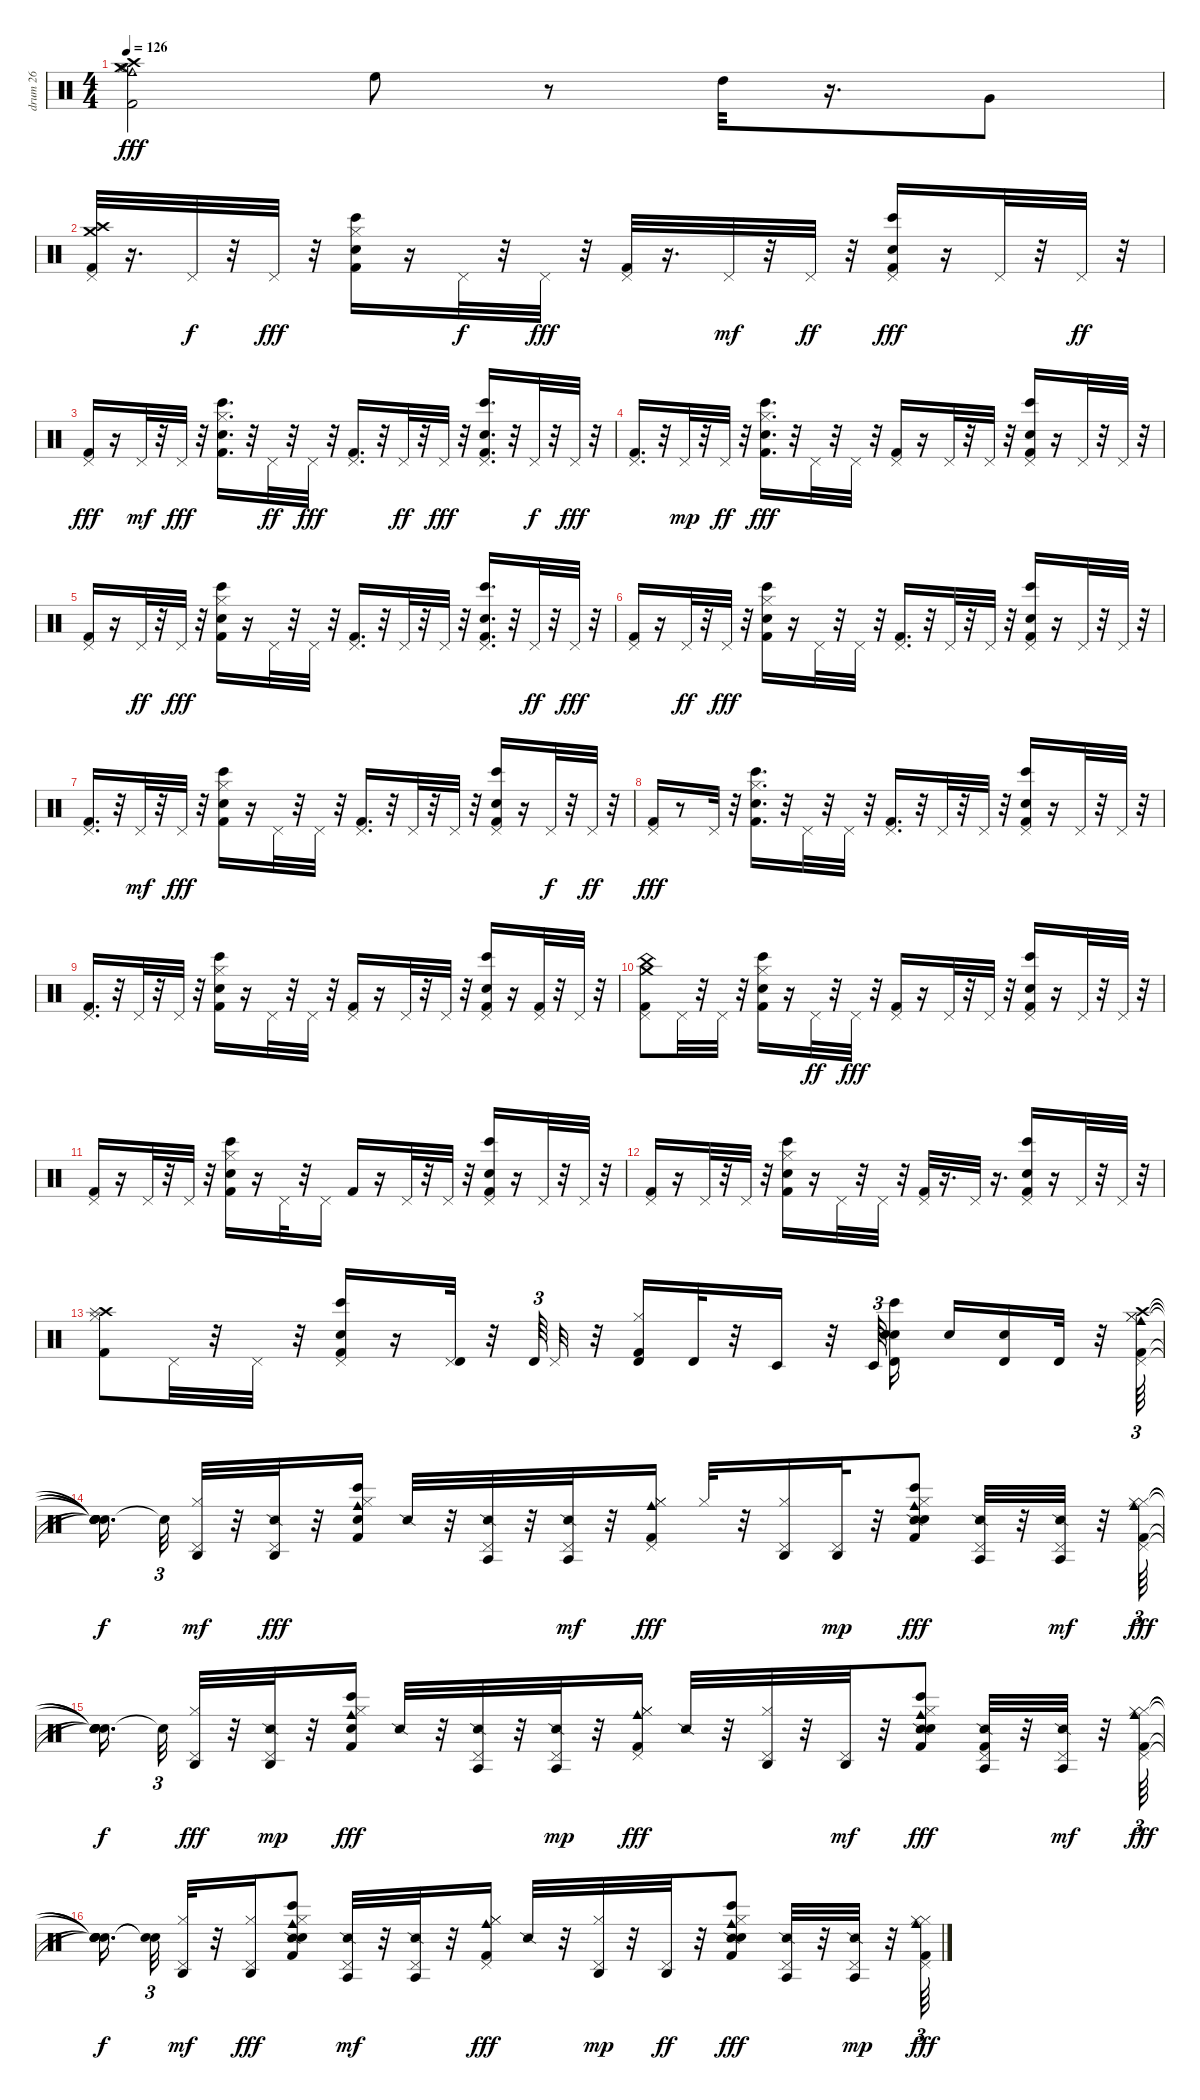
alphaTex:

\track ("drum 26" "drum 26") {instrument percussion}
\staff {score}
\articulation defaults
\ts (4 4)
\tempo 126
\clef neutral
\ks c
("Hi-Hat (closed)" "Kick (hit) 2" "Hi-Hat (open)" "Crash high (hit)" "Cowbell medium (hit)" "Crash medium (hit)").2{dy fff} "High Floor Tom (hit)".8 r.8 "High Tom (hit)".32 r.16{d} "Very Low Tom (hit)".8 |
("Kick (hit) 2" "Pedal Hi-Hat (hit)" "Crash high (hit)" "Crash medium (hit)").32 r.16{d} "Pedal Hi-Hat (hit)".32{dy f} r.32 "Pedal Hi-Hat (hit)".32{dy fff} r.32 ("Bongo High (hit)" "Kick (hit) 2" "Hand Clap (hit)" "Hi-Hat (closed)").16 r.16 "Pedal Hi-Hat (hit)".32{dy f} r.32 "Pedal Hi-Hat (hit)".32{dy fff} r.32 ("Kick (hit) 2" "Pedal Hi-Hat (hit)").32 r.16{d} "Pedal Hi-Hat (hit)".32{dy mf} r.32 "Pedal Hi-Hat (hit)".32{dy ff} r.32 ("Bongo High (hit)" "Kick (hit) 2" "Hand Clap (hit)" "Pedal Hi-Hat (hit)").16{dy fff} r.16 "Pedal Hi-Hat (hit)".32 r.32 "Pedal Hi-Hat (hit)".32{dy ff} r.32 |
("Kick (hit) 2" "Pedal Hi-Hat (hit)").16{dy fff} r.16 "Pedal Hi-Hat (hit)".32{dy mf} r.32 "Pedal Hi-Hat (hit)".32{dy fff} r.32 ("Bongo High (hit)" "Kick (hit) 2" "Hand Clap (hit)" "Hi-Hat (closed)").16{d} r.32 "Pedal Hi-Hat (hit)".32{dy ff} r.32 "Pedal Hi-Hat (hit)".32{dy fff} r.32 ("Kick (hit) 2" "Pedal Hi-Hat (hit)").16{d} r.32 "Pedal Hi-Hat (hit)".32{dy ff} r.32 "Pedal Hi-Hat (hit)".32{dy fff} r.32 ("Bongo High (hit)" "Kick (hit) 2" "Hand Clap (hit)" "Pedal Hi-Hat (hit)").16{d} r.32 "Pedal Hi-Hat (hit)".32{dy f} r.32 "Pedal Hi-Hat (hit)".32{dy fff} r.32 |
("Kick (hit) 2" "Pedal Hi-Hat (hit)").16{d} r.32 "Pedal Hi-Hat (hit)".32{dy mp} r.32 "Pedal Hi-Hat (hit)".32{dy ff} r.32 ("Bongo High (hit)" "Kick (hit) 2" "Hand Clap (hit)" "Hi-Hat (closed)").16{d dy fff} r.32 "Pedal Hi-Hat (hit)".32 r.32 "Pedal Hi-Hat (hit)".32 r.32 ("Kick (hit) 2" "Pedal Hi-Hat (hit)").16 r.16 "Pedal Hi-Hat (hit)".32 r.32 "Pedal Hi-Hat (hit)".32 r.32 ("Bongo High (hit)" "Kick (hit) 2" "Hand Clap (hit)" "Pedal Hi-Hat (hit)").16 r.16 "Pedal Hi-Hat (hit)".32 r.32 "Pedal Hi-Hat (hit)".32 r.32 |
("Kick (hit) 2" "Pedal Hi-Hat (hit)").16 r.16 "Pedal Hi-Hat (hit)".32{dy ff} r.32 "Pedal Hi-Hat (hit)".32{dy fff} r.32 ("Bongo High (hit)" "Kick (hit) 2" "Hand Clap (hit)" "Hi-Hat (closed)").16 r.16 "Pedal Hi-Hat (hit)".32 r.32 "Pedal Hi-Hat (hit)".32 r.32 ("Kick (hit) 2" "Pedal Hi-Hat (hit)").16{d} r.32 "Pedal Hi-Hat (hit)".32 r.32 "Pedal Hi-Hat (hit)".32 r.32 ("Bongo High (hit)" "Kick (hit) 2" "Hand Clap (hit)" "Pedal Hi-Hat (hit)").16{d} r.32 "Pedal Hi-Hat (hit)".32{dy ff} r.32 "Pedal Hi-Hat (hit)".32{dy fff} r.32 |
("Kick (hit) 2" "Pedal Hi-Hat (hit)").16 r.16 "Pedal Hi-Hat (hit)".32{dy ff} r.32 "Pedal Hi-Hat (hit)".32{dy fff} r.32 ("Bongo High (hit)" "Kick (hit) 2" "Hand Clap (hit)" "Hi-Hat (closed)").16 r.16 "Pedal Hi-Hat (hit)".32 r.32 "Pedal Hi-Hat (hit)".32 r.32 ("Kick (hit) 2" "Pedal Hi-Hat (hit)").16{d} r.32 "Pedal Hi-Hat (hit)".32 r.32 "Pedal Hi-Hat (hit)".32 r.32 ("Bongo High (hit)" "Kick (hit) 2" "Hand Clap (hit)" "Pedal Hi-Hat (hit)").16 r.16 "Pedal Hi-Hat (hit)".32 r.32 "Pedal Hi-Hat (hit)".32 r.32 |
("Kick (hit) 2" "Pedal Hi-Hat (hit)").16{d} r.32 "Pedal Hi-Hat (hit)".32{dy mf} r.32 "Pedal Hi-Hat (hit)".32{dy fff} r.32 ("Bongo High (hit)" "Kick (hit) 2" "Hand Clap (hit)" "Hi-Hat (closed)").16 r.16 "Pedal Hi-Hat (hit)".32 r.32 "Pedal Hi-Hat (hit)".32 r.32 ("Kick (hit) 2" "Pedal Hi-Hat (hit)").16{d} r.32 "Pedal Hi-Hat (hit)".32 r.32 "Pedal Hi-Hat (hit)".32 r.32 ("Bongo High (hit)" "Kick (hit) 2" "Hand Clap (hit)" "Pedal Hi-Hat (hit)").16 r.16 "Pedal Hi-Hat (hit)".32{dy f} r.32 "Pedal Hi-Hat (hit)".32{dy ff} r.32 |
("Kick (hit) 2" "Pedal Hi-Hat (hit)").16{dy fff} r.8 "Pedal Hi-Hat (hit)".32 r.32 ("Bongo High (hit)" "Kick (hit) 2" "Hand Clap (hit)" "Hi-Hat (closed)").16{d} r.32 "Pedal Hi-Hat (hit)".32 r.32 "Pedal Hi-Hat (hit)".32 r.32 ("Kick (hit) 2" "Pedal Hi-Hat (hit)").16{d} r.32 "Pedal Hi-Hat (hit)".32 r.32 "Pedal Hi-Hat (hit)".32 r.32 ("Bongo High (hit)" "Kick (hit) 2" "Hand Clap (hit)" "Pedal Hi-Hat (hit)").16 r.16 "Pedal Hi-Hat (hit)".32 r.32 "Pedal Hi-Hat (hit)".32 r.32 |
("Kick (hit) 2" "Pedal Hi-Hat (hit)").16{d} r.32 "Pedal Hi-Hat (hit)".32 r.32 "Pedal Hi-Hat (hit)".32 r.32 ("Bongo High (hit)" "Kick (hit) 2" "Hand Clap (hit)" "Hi-Hat (closed)").16 r.16 "Pedal Hi-Hat (hit)".32 r.32 "Pedal Hi-Hat (hit)".32 r.32 ("Kick (hit) 2" "Pedal Hi-Hat (hit)").16 r.16 "Pedal Hi-Hat (hit)".32 r.32 "Pedal Hi-Hat (hit)".32 r.32 ("Bongo High (hit)" "Kick (hit) 2" "Hand Clap (hit)" "Pedal Hi-Hat (hit)").16 r.16 ("Kick (hit) 2" "Pedal Hi-Hat (hit)").32 r.32 "Pedal Hi-Hat (hit)".32 r.32 |
("Kick (hit) 2" "Pedal Hi-Hat (hit)" "China (hit)" "Crash medium (hit)").8 "Pedal Hi-Hat (hit)".32 r.32 "Pedal Hi-Hat (hit)".32 r.32 ("Bongo High (hit)" "Kick (hit) 2" "Hand Clap (hit)" "Hi-Hat (closed)").16 r.16 "Pedal Hi-Hat (hit)".32{dy ff} r.32 "Pedal Hi-Hat (hit)".32{dy fff} r.32 ("Kick (hit) 2" "Pedal Hi-Hat (hit)").16 r.16 "Pedal Hi-Hat (hit)".32 r.32 "Pedal Hi-Hat (hit)".32 r.32 ("Bongo High (hit)" "Kick (hit) 2" "Hand Clap (hit)" "Pedal Hi-Hat (hit)").16 r.16 "Pedal Hi-Hat (hit)".32 r.32 "Pedal Hi-Hat (hit)".32 r.32 |
("Kick (hit) 2" "Pedal Hi-Hat (hit)").16 r.16 "Pedal Hi-Hat (hit)".32 r.32 "Pedal Hi-Hat (hit)".32 r.32 ("Bongo High (hit)" "Kick (hit) 2" "Hand Clap (hit)" "Hi-Hat (closed)").16 r.16 "Pedal Hi-Hat (hit)".32 r.32 "Pedal Hi-Hat (hit)".16 "Kick (hit) 2".16 r.16 "Pedal Hi-Hat (hit)".32 r.32 "Pedal Hi-Hat (hit)".32 r.32 ("Bongo High (hit)" "Kick (hit) 2" "Hand Clap (hit)" "Pedal Hi-Hat (hit)").16 r.16 "Pedal Hi-Hat (hit)".32 r.32 "Pedal Hi-Hat (hit)".32 r.32 |
("Kick (hit) 2" "Pedal Hi-Hat (hit)").16 r.16 "Pedal Hi-Hat (hit)".32 r.32 "Pedal Hi-Hat (hit)".32 r.32 ("Bongo High (hit)" "Kick (hit) 2" "Hand Clap (hit)" "Hi-Hat (closed)").16 r.16 "Pedal Hi-Hat (hit)".32 r.32 "Pedal Hi-Hat (hit)".32 r.32 ("Kick (hit) 2" "Pedal Hi-Hat (hit)").32 r.16{d} "Pedal Hi-Hat (hit)".32 r.16{d} ("Bongo High (hit)" "Kick (hit) 2" "Hand Clap (hit)" "Pedal Hi-Hat (hit)").16 r.16 "Pedal Hi-Hat (hit)".32 r.32 "Pedal Hi-Hat (hit)".32 r.32 |
("Kick (hit) 2" "Hi-Hat (closed)" "Crash high (hit)" "Splash (hit)").8 "Pedal Hi-Hat (hit)".32 r.32 "Pedal Hi-Hat (hit)".32 r.32 ("Bongo High (hit)" "Kick (hit) 2" "Hand Clap (hit)" "Pedal Hi-Hat (hit)").16 r.16 ("Pedal Hi-Hat (hit)" "Timbale high (hit)").32 r.32 "Timbale high (hit)".64{tu (3 2)} "Pedal Hi-Hat (hit)".32 r.32 ("Kick (hit) 2" "Hi-Hat (closed)" "Timbale high (hit)").16 "Timbale high (hit)".32 r.32 "Timbale low (hit)".16 r.32 "Timbale low (hit)".64{tu (3 2)} ("Bongo High (hit)" "Hand Clap (hit)" "Electric Snare (hit)" "Timbale high (hit)").16 "Electric Snare (hit)".16 ("Electric Snare (hit)" "Timbale high (hit)").16 "Timbale high (hit)".32 r.32 ("Hi-Hat (closed)" "Kick (hit) 2" "Hi-Hat (closed)" "Pedal Hi-Hat (hit)" "Crash high (hit)" "Cowbell medium (hit)").64{tu (3 2)} |
("Snare (hit)"{t} "Snare (hit)"{t} "Snare (hit)"{t} "Snare (hit)"{t} "Snare (hit)"{t} "Snare (hit)"{t}).16{d dy f beam splitsecondary} "Snare (hit)"{t}.32{tu (3 2)} ("Hi-Hat (closed)" "Pedal Hi-Hat (hit)" "Agogo high (hit)").32{dy mf} r.32 ("Snare (side stick) 2" "Pedal Hi-Hat (hit)" "Agogo high (hit)").32{dy fff} r.32 ("Bongo High (hit)" "Kick (hit) 2" "Hand Clap (hit)" "Hi-Hat (closed)" "Cowbell medium (hit)").16 "Snare (side stick) 2".32 r.32 ("Snare (side stick) 2" "Pedal Hi-Hat (hit)" "Agogo tow (hit)").32 r.32 ("Snare (side stick) 2" "Pedal Hi-Hat (hit)" "Agogo tow (hit)").32{dy mf} r.32 ("Hi-Hat (closed)" "Kick (hit) 2" "Hi-Hat (closed)" "Pedal Hi-Hat (hit)" "Cowbell medium (hit)").16{dy fff} "Hi-Hat (closed)".32 r.32 ("Hi-Hat (closed)" "Pedal Hi-Hat (hit)" "Agogo high (hit)").16 ("Pedal Hi-Hat (hit)" "Agogo high (hit)").32{dy mp} r.32 ("Bongo High (hit)" "Snare (side stick) 2" "Kick (hit) 2" "Hand Clap (hit)" "Hi-Hat (closed)" "Cowbell medium (hit)").8{dy fff} ("Snare (side stick) 2" "Pedal Hi-Hat (hit)" "Agogo tow (hit)").32 r.32 ("Snare (side stick) 2" "Pedal Hi-Hat (hit)" "Agogo tow (hit)").32{dy mf} r.32 ("Hi-Hat (closed)" "Kick (hit) 2" "Hi-Hat (closed)" "Pedal Hi-Hat (hit)" "Cowbell medium (hit)").64{tu (3 2) dy fff} |
("Snare (hit)"{t} "Snare (hit)"{t} "Snare (hit)"{t} "Snare (hit)"{t} "Snare (hit)"{t}).16{d dy f beam splitsecondary} "Snare (hit)"{t}.32{tu (3 2)} ("Hi-Hat (closed)" "Pedal Hi-Hat (hit)" "Agogo high (hit)").32{dy fff} r.32 ("Snare (side stick) 2" "Pedal Hi-Hat (hit)" "Agogo high (hit)").32{dy mp} r.32 ("Bongo High (hit)" "Kick (hit) 2" "Hand Clap (hit)" "Hi-Hat (closed)" "Cowbell medium (hit)").16{dy fff} "Snare (side stick) 2".32 r.32 ("Snare (side stick) 2" "Pedal Hi-Hat (hit)" "Agogo tow (hit)").32 r.32 ("Snare (side stick) 2" "Pedal Hi-Hat (hit)" "Agogo tow (hit)").32{dy mp} r.32 ("Hi-Hat (closed)" "Kick (hit) 2" "Hi-Hat (closed)" "Pedal Hi-Hat (hit)" "Cowbell medium (hit)").16{dy fff} "Snare (side stick) 2".32 r.32 ("Hi-Hat (closed)" "Pedal Hi-Hat (hit)" "Agogo high (hit)").32 r.32 ("Pedal Hi-Hat (hit)" "Agogo high (hit)").32{dy mf} r.32 ("Bongo High (hit)" "Snare (side stick) 2" "Kick (hit) 2" "Hand Clap (hit)" "Hi-Hat (closed)" "Cowbell medium (hit)").8{dy fff} ("Snare (side stick) 2" "Kick (hit) 2" "Pedal Hi-Hat (hit)" "Agogo tow (hit)").32 r.32 ("Snare (side stick) 2" "Pedal Hi-Hat (hit)" "Agogo tow (hit)").32{dy mf} r.32 ("Hi-Hat (closed)" "Kick (hit) 2" "Hi-Hat (closed)" "Pedal Hi-Hat (hit)" "Cowbell medium (hit)").64{tu (3 2) dy fff} |
("Snare (hit)"{t} "Snare (hit)"{t} "Snare (hit)"{t} "Snare (hit)"{t} "Snare (hit)"{t}).16{d dy f beam splitsecondary} ("Snare (hit)"{t} "Snare (hit)"{t}).32{tu (3 2)} ("Hi-Hat (closed)" "Pedal Hi-Hat (hit)" "Agogo high (hit)").32{dy mf} r.32 ("Hi-Hat (closed)" "Pedal Hi-Hat (hit)" "Agogo high (hit)").16{dy fff} ("Bongo High (hit)" "Snare (side stick) 2" "Kick (hit) 2" "Hand Clap (hit)" "Hi-Hat (closed)" "Cowbell medium (hit)").8 ("Snare (side stick) 2" "Pedal Hi-Hat (hit)" "Agogo tow (hit)").32{dy mf} r.32 ("Snare (side stick) 2" "Pedal Hi-Hat (hit)" "Agogo tow (hit)").32 r.32 ("Hi-Hat (closed)" "Kick (hit) 2" "Hi-Hat (closed)" "Pedal Hi-Hat (hit)" "Cowbell medium (hit)").16{dy fff} "Snare (side stick) 2".32 r.32 ("Hi-Hat (closed)" "Pedal Hi-Hat (hit)" "Agogo high (hit)").32{dy mp} r.32 ("Pedal Hi-Hat (hit)" "Agogo high (hit)").32{dy ff} r.32 ("Bongo High (hit)" "Snare (side stick) 2" "Kick (hit) 2" "Hand Clap (hit)" "Hi-Hat (closed)" "Cowbell medium (hit)").8{dy fff} ("Snare (side stick) 2" "Pedal Hi-Hat (hit)" "Agogo tow (hit)").32 r.32 ("Snare (side stick) 2" "Pedal Hi-Hat (hit)" "Agogo tow (hit)").32{dy mp} r.32 ("Hi-Hat (closed)" "Kick (hit) 2" "Hi-Hat (closed)" "Pedal Hi-Hat (hit)" "Cowbell medium (hit)").64{tu (3 2) dy fff}
